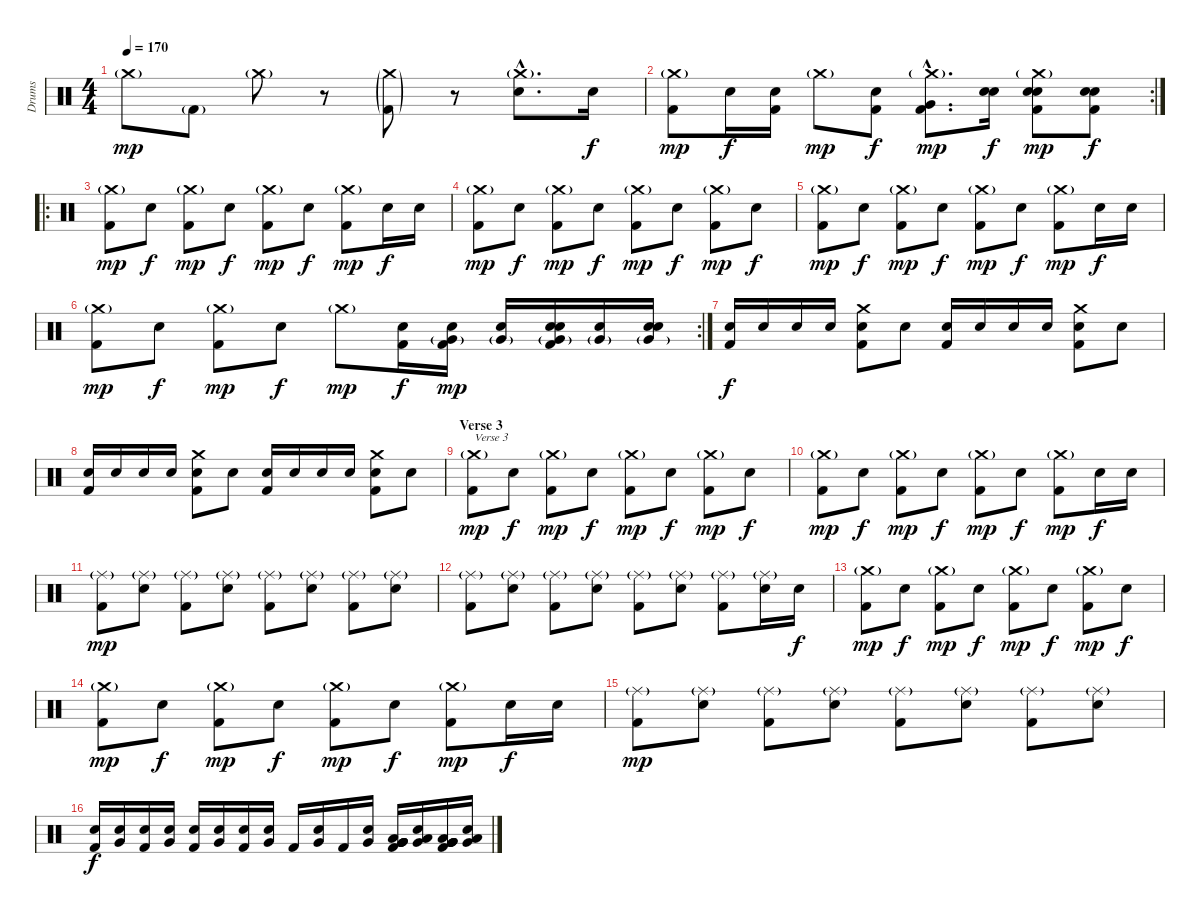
\track ("Drums" "Drums") {instrument percussion}
\staff {score}
\articulation defaults
\ts (4 4)
\tempo 170
\clef neutral
\ks c "Crash medium (hit)"{g}.8{dy mp} "Kick (hit) 2"{g}.8 "Crash medium (hit)"{g}.8
r.8 ("Crash medium (hit)"{g} "Kick (hit) 2"{g}).8 r.8 ("Crash medium (hit)"{g hac} "Snare (hit) 2"{hac}).8{d} "Snare (hit) 2".16{dy f} |
\rc 2
("Crash medium (hit)"{g} "Kick (hit) 2").8{dy mp} "Snare (hit) 2".16{dy f} ("Snare (hit) 2" "Kick (hit) 2").16 "Crash medium (hit)"{g}.8{dy mp} ("Snare (hit) 2" "Kick (hit) 2").8{dy f} ("Crash medium (hit)"{g hac} "Very Low Tom (hit)"{hac} "Kick (hit) 2"{hac}).8{d dy mp} ("Electric Snare (hit)" "Snare (hit) 2").16{dy f} ("Crash medium (hit)"{g} "Electric Snare (hit)" "Snare (hit) 2" "Kick (hit) 2").8{dy mp} ("Electric Snare (hit)" "Snare (hit) 2" "Kick (hit) 2").8{dy f} |
\ro
("Crash medium (hit)"{g} "Kick (hit) 2").8{dy mp} "Snare (hit) 2".8{dy f} ("Crash medium (hit)"{g} "Kick (hit) 2").8{dy mp} "Snare (hit) 2".8{dy f} ("Crash medium (hit)"{g} "Kick (hit) 2").8{dy mp} "Snare (hit) 2".8{dy f} ("Crash medium (hit)"{g} "Kick (hit) 2").8{dy mp} "Snare (hit) 2".16{dy f} "Snare (hit) 2".16 |
("Crash medium (hit)"{g} "Kick (hit) 2").8{dy mp} "Snare (hit) 2".8{dy f} ("Crash medium (hit)"{g} "Kick (hit) 2").8{dy mp} "Snare (hit) 2".8{dy f} ("Crash medium (hit)"{g} "Kick (hit) 2").8{dy mp} "Snare (hit) 2".8{dy f} ("Crash medium (hit)"{g} "Kick (hit) 2").8{dy mp} "Snare (hit) 2".8{dy f} |
("Crash medium (hit)"{g} "Kick (hit) 2").8{dy mp} "Snare (hit) 2".8{dy f} ("Crash medium (hit)"{g} "Kick (hit) 2").8{dy mp} "Snare (hit) 2".8{dy f} ("Crash medium (hit)"{g} "Kick (hit) 2").8{dy mp} "Snare (hit) 2".8{dy f} ("Crash medium (hit)"{g} "Kick (hit) 2").8{dy mp} "Snare (hit) 2".16{dy f} "Snare (hit) 2".16 |
\rc 2
("Crash medium (hit)"{g} "Kick (hit) 2").8{dy mp} "Snare (hit) 2".8{dy f} ("Crash medium (hit)"{g} "Kick (hit) 2").8{dy mp} "Snare (hit) 2".8{dy f} "Crash medium (hit)"{g}.8{dy mp} ("Snare (hit) 2" "Kick (hit) 2").16{dy f} ("Very Low Tom (hit)"{g} "Snare (hit) 2" "Kick (hit) 2").16{dy mp} ("Very Low Tom (hit)"{g} "Snare (hit) 2").16 ("Very Low Tom (hit)"{g} "Snare (hit) 2" "Kick (hit) 2" "Snare (hit) 2").16 ("Very Low Tom (hit)"{g} "Snare (hit) 2").16 ("Very Low Tom (hit)"{g} "Snare (hit) 2" "Snare (hit) 2").16 |
("Snare (hit) 2" "Kick (hit) 2").16{dy f} "Snare (hit) 2".16 "Snare (hit) 2".16 "Snare (hit) 2".16 ("Crash medium (hit)" "Snare (hit) 2" "Kick (hit) 2").8 "Snare (hit) 2".8 ("Snare (hit) 2" "Kick (hit) 2").16 "Snare (hit) 2".16 "Snare (hit) 2".16 "Snare (hit) 2".16 ("Crash medium (hit)" "Snare (hit) 2" "Kick (hit) 2").8 "Snare (hit) 2".8 |
("Snare (hit) 2" "Kick (hit) 2").16 "Snare (hit) 2".16 "Snare (hit) 2".16 "Snare (hit) 2".16 ("Crash medium (hit)" "Snare (hit) 2" "Kick (hit) 2").8 "Snare (hit) 2".8 ("Snare (hit) 2" "Kick (hit) 2").16 "Snare (hit) 2".16 "Snare (hit) 2".16 "Snare (hit) 2".16 ("Crash medium (hit)" "Snare (hit) 2" "Kick (hit) 2").8 "Snare (hit) 2".8 |
\section ("" "Verse 3")
("Crash medium (hit)"{g} "Kick (hit) 2").8{txt "Verse 3" dy mp} "Snare (hit) 2".8{dy f} ("Crash medium (hit)"{g} "Kick (hit) 2").8{dy mp} "Snare (hit) 2".8{dy f} ("Crash medium (hit)"{g} "Kick (hit) 2").8{dy mp} "Snare (hit) 2".8{dy f} ("Crash medium (hit)"{g} "Kick (hit) 2").8{dy mp} "Snare (hit) 2".8{dy f} |
("Crash medium (hit)"{g} "Kick (hit) 2").8{dy mp} "Snare (hit) 2".8{dy f} ("Crash medium (hit)"{g} "Kick (hit) 2").8{dy mp} "Snare (hit) 2".8{dy f} ("Crash medium (hit)"{g} "Kick (hit) 2").8{dy mp} "Snare (hit) 2".8{dy f} ("Crash medium (hit)"{g} "Kick (hit) 2").8{dy mp} "Snare (hit) 2".16{dy f} "Snare (hit) 2".16 |
("Ride (middle)"{g} "Kick (hit) 2").8{dy mp} ("Ride (middle)"{g} "Snare (hit) 2").8 ("Ride (middle)"{g} "Kick (hit) 2").8 ("Ride (middle)"{g} "Snare (hit) 2").8 ("Ride (middle)"{g} "Kick (hit) 2").8 ("Ride (middle)"{g} "Snare (hit) 2").8 ("Ride (middle)"{g} "Kick (hit) 2").8 ("Ride (middle)"{g} "Snare (hit) 2").8 |
("Ride (middle)"{g} "Kick (hit) 2").8 ("Ride (middle)"{g} "Snare (hit) 2").8 ("Ride (middle)"{g} "Kick (hit) 2").8 ("Ride (middle)"{g} "Snare (hit) 2").8 ("Ride (middle)"{g} "Kick (hit) 2").8 ("Ride (middle)"{g} "Snare (hit) 2").8 ("Ride (middle)"{g} "Kick (hit) 2").8 ("Ride (middle)"{g} "Snare (hit) 2").16 "Snare (hit) 2".16{dy f} |
("Crash medium (hit)"{g} "Kick (hit) 2").8{dy mp} "Snare (hit) 2".8{dy f} ("Crash medium (hit)"{g} "Kick (hit) 2").8{dy mp} "Snare (hit) 2".8{dy f} ("Crash medium (hit)"{g} "Kick (hit) 2").8{dy mp} "Snare (hit) 2".8{dy f} ("Crash medium (hit)"{g} "Kick (hit) 2").8{dy mp} "Snare (hit) 2".8{dy f} |
("Crash medium (hit)"{g} "Kick (hit) 2").8{dy mp} "Snare (hit) 2".8{dy f} ("Crash medium (hit)"{g} "Kick (hit) 2").8{dy mp} "Snare (hit) 2".8{dy f} ("Crash medium (hit)"{g} "Kick (hit) 2").8{dy mp} "Snare (hit) 2".8{dy f} ("Crash medium (hit)"{g} "Kick (hit) 2").8{dy mp} "Snare (hit) 2".16{dy f} "Snare (hit) 2".16 |
("Ride (middle)"{g} "Kick (hit) 2").8{dy mp} ("Ride (middle)"{g} "Snare (hit) 2").8 ("Ride (middle)"{g} "Kick (hit) 2").8 ("Ride (middle)"{g} "Snare (hit) 2").8 ("Ride (middle)"{g} "Kick (hit) 2").8 ("Ride (middle)"{g} "Snare (hit) 2").8 ("Ride (middle)"{g} "Kick (hit) 2").8 ("Ride (middle)"{g} "Snare (hit) 2").8 |
("Snare (hit) 2" "Kick (hit) 2").16{dy f} ("Snare (hit) 2" "Very Low Tom (hit)").16 ("Snare (hit) 2" "Kick (hit) 2").16 ("Snare (hit) 2" "Very Low Tom (hit)").16 ("Snare (hit) 2" "Kick (hit) 2").16 ("Snare (hit) 2" "Very Low Tom (hit)").16 ("Snare (hit) 2" "Kick (hit) 2").16 ("Snare (hit) 2" "Very Low Tom (hit)").16 "Kick (hit) 2".16 ("Snare (hit) 2" "Very Low Tom (hit)").16 "Kick (hit) 2".16 ("Snare (hit) 2" "Very Low Tom (hit)").16 ("Low Tom (hit)" "Very Low Tom (hit)" "Very Low Tom (hit)" "Very Low Tom (hit)" "Very Low Tom (hit)" "Kick (hit) 2").16 ("Low Tom (hit)" "Snare (hit) 2" "Very Low Tom (hit)").16 ("Low Tom (hit)" "Very Low Tom (hit)" "Very Low Tom (hit)" "Very Low Tom (hit)" "Very Low Tom (hit)" "Kick (hit) 2").16 ("Low Tom (hit)" "Snare (hit) 2" "Very Low Tom (hit)").16
